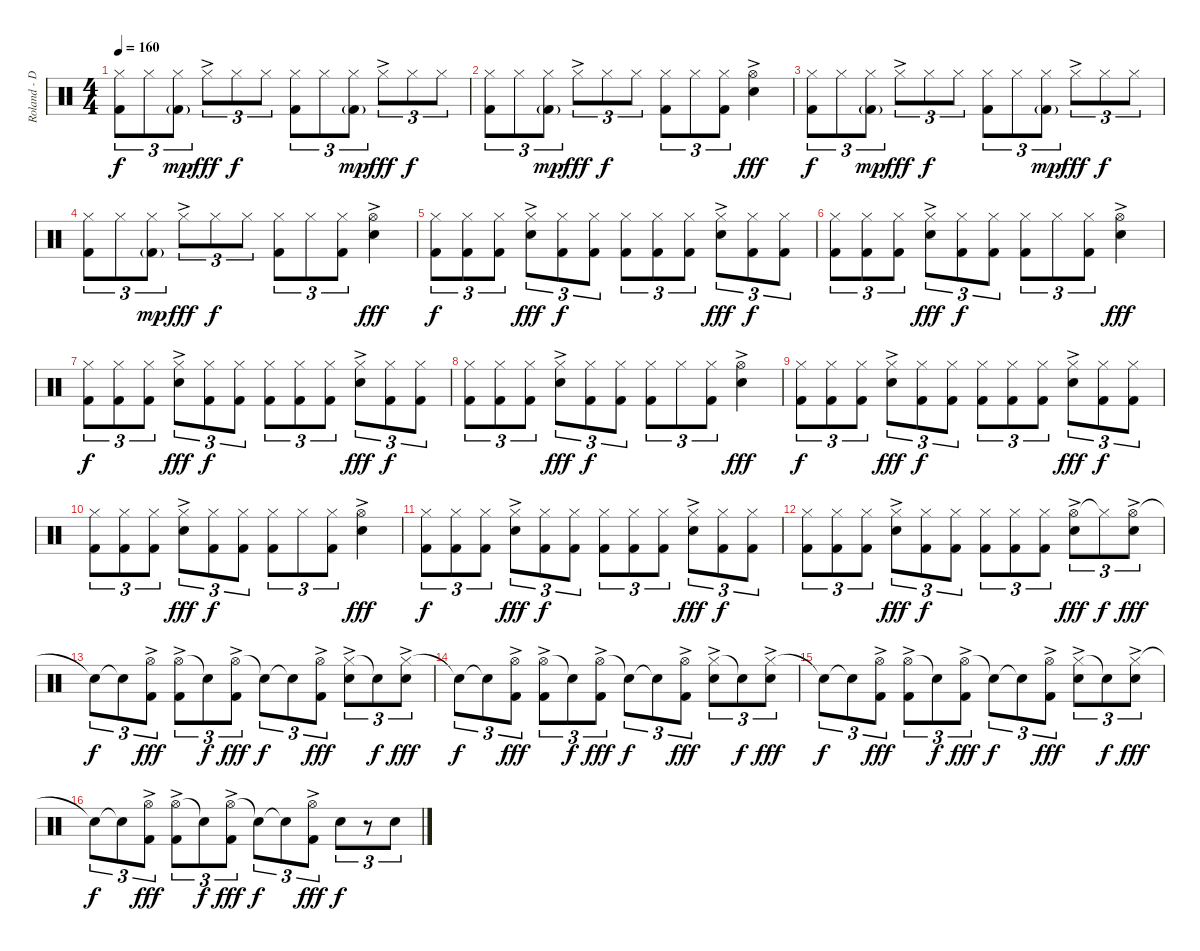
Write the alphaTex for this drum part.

\track ("Roland - Drums" "Roland - D") {instrument percussion}
\staff {score}
\articulation defaults
\ts (4 4)
\tempo 160
\clef neutral
\ks c
("Hi-Hat (closed)" "Kick (hit) 2").8{tu (3 2) dy f} "Hi-Hat (closed)".8{tu (3 2)} ("Hi-Hat (closed)" "Kick (hit) 2"{g}).8{tu (3 2) dy mp} "Hi-Hat (closed)"{ac}.8{tu (3 2) dy fff} "Hi-Hat (closed)".8{tu (3 2) dy f} "Hi-Hat (closed)".8{tu (3 2)} ("Hi-Hat (closed)" "Kick (hit) 2").8{tu (3 2)} "Hi-Hat (closed)".8{tu (3 2)} ("Hi-Hat (closed)" "Kick (hit) 2"{g}).8{tu (3 2) dy mp} "Hi-Hat (closed)"{ac}.8{tu (3 2) dy fff} "Hi-Hat (closed)".8{tu (3 2) dy f} "Hi-Hat (closed)".8{tu (3 2)} |
("Hi-Hat (closed)" "Kick (hit) 2").8{tu (3 2)} "Hi-Hat (closed)".8{tu (3 2)} ("Hi-Hat (closed)" "Kick (hit) 2"{g}).8{tu (3 2) dy mp} "Hi-Hat (closed)"{ac}.8{tu (3 2) dy fff} "Hi-Hat (closed)".8{tu (3 2) dy f} "Hi-Hat (closed)".8{tu (3 2)} ("Hi-Hat (closed)" "Kick (hit) 2").8{tu (3 2)} "Hi-Hat (closed)".8{tu (3 2)} ("Hi-Hat (closed)" "Kick (hit) 2").8{tu (3 2)} ("Hi-Hat (open)"{ac} "Snare (hit) 2").4{dy fff} |
("Hi-Hat (closed)" "Kick (hit) 2").8{tu (3 2) dy f} "Hi-Hat (closed)".8{tu (3 2)} ("Hi-Hat (closed)" "Kick (hit) 2"{g}).8{tu (3 2) dy mp} "Hi-Hat (closed)"{ac}.8{tu (3 2) dy fff} "Hi-Hat (closed)".8{tu (3 2) dy f} "Hi-Hat (closed)".8{tu (3 2)} ("Hi-Hat (closed)" "Kick (hit) 2").8{tu (3 2)} "Hi-Hat (closed)".8{tu (3 2)} ("Hi-Hat (closed)" "Kick (hit) 2"{g}).8{tu (3 2) dy mp} "Hi-Hat (closed)"{ac}.8{tu (3 2) dy fff} "Hi-Hat (closed)".8{tu (3 2) dy f} "Hi-Hat (closed)".8{tu (3 2)} |
("Hi-Hat (closed)" "Kick (hit) 2").8{tu (3 2)} "Hi-Hat (closed)".8{tu (3 2)} ("Hi-Hat (closed)" "Kick (hit) 2"{g}).8{tu (3 2) dy mp} "Hi-Hat (closed)"{ac}.8{tu (3 2) dy fff} "Hi-Hat (closed)".8{tu (3 2) dy f} "Hi-Hat (closed)".8{tu (3 2)} ("Hi-Hat (closed)" "Kick (hit) 2").8{tu (3 2)} "Hi-Hat (closed)".8{tu (3 2)} ("Hi-Hat (closed)" "Kick (hit) 2").8{tu (3 2)} ("Hi-Hat (open)"{ac} "Snare (hit) 2").4{dy fff} |
("Hi-Hat (closed)" "Kick (hit) 2").8{tu (3 2) dy f} ("Hi-Hat (closed)" "Kick (hit) 2").8{tu (3 2)} ("Hi-Hat (closed)" "Kick (hit) 2").8{tu (3 2)} ("Hi-Hat (closed)"{ac} "Snare (hit) 2").8{tu (3 2) dy fff} ("Hi-Hat (closed)" "Kick (hit) 2").8{tu (3 2) dy f} ("Hi-Hat (closed)" "Kick (hit) 2").8{tu (3 2)} ("Hi-Hat (closed)" "Kick (hit) 2").8{tu (3 2)} ("Hi-Hat (closed)" "Kick (hit) 2").8{tu (3 2)} ("Hi-Hat (closed)" "Kick (hit) 2").8{tu (3 2)} ("Hi-Hat (closed)"{ac} "Snare (hit) 2").8{tu (3 2) dy fff} ("Hi-Hat (closed)" "Kick (hit) 2").8{tu (3 2) dy f} ("Hi-Hat (closed)" "Kick (hit) 2").8{tu (3 2)} |
("Hi-Hat (closed)" "Kick (hit) 2").8{tu (3 2)} ("Hi-Hat (closed)" "Kick (hit) 2").8{tu (3 2)} ("Hi-Hat (closed)" "Kick (hit) 2").8{tu (3 2)} ("Hi-Hat (closed)"{ac} "Snare (hit) 2").8{tu (3 2) dy fff} ("Hi-Hat (closed)" "Kick (hit) 2").8{tu (3 2) dy f} ("Hi-Hat (closed)" "Kick (hit) 2").8{tu (3 2)} ("Hi-Hat (closed)" "Kick (hit) 2").8{tu (3 2)} "Hi-Hat (closed)".8{tu (3 2)} ("Hi-Hat (closed)" "Kick (hit) 2").8{tu (3 2)} ("Hi-Hat (open)"{ac} "Snare (hit) 2").4{dy fff} |
("Hi-Hat (closed)" "Kick (hit) 2").8{tu (3 2) dy f} ("Hi-Hat (closed)" "Kick (hit) 2").8{tu (3 2)} ("Hi-Hat (closed)" "Kick (hit) 2").8{tu (3 2)} ("Hi-Hat (closed)"{ac} "Snare (hit) 2").8{tu (3 2) dy fff} ("Hi-Hat (closed)" "Kick (hit) 2").8{tu (3 2) dy f} ("Hi-Hat (closed)" "Kick (hit) 2").8{tu (3 2)} ("Hi-Hat (closed)" "Kick (hit) 2").8{tu (3 2)} ("Hi-Hat (closed)" "Kick (hit) 2").8{tu (3 2)} ("Hi-Hat (closed)" "Kick (hit) 2").8{tu (3 2)} ("Hi-Hat (closed)"{ac} "Snare (hit) 2").8{tu (3 2) dy fff} ("Hi-Hat (closed)" "Kick (hit) 2").8{tu (3 2) dy f} ("Hi-Hat (closed)" "Kick (hit) 2").8{tu (3 2)} |
("Hi-Hat (closed)" "Kick (hit) 2").8{tu (3 2)} ("Hi-Hat (closed)" "Kick (hit) 2").8{tu (3 2)} ("Hi-Hat (closed)" "Kick (hit) 2").8{tu (3 2)} ("Hi-Hat (closed)"{ac} "Snare (hit) 2").8{tu (3 2) dy fff} ("Hi-Hat (closed)" "Kick (hit) 2").8{tu (3 2) dy f} ("Hi-Hat (closed)" "Kick (hit) 2").8{tu (3 2)} ("Hi-Hat (closed)" "Kick (hit) 2").8{tu (3 2)} "Hi-Hat (closed)".8{tu (3 2)} ("Hi-Hat (closed)" "Kick (hit) 2").8{tu (3 2)} ("Hi-Hat (open)"{ac} "Snare (hit) 2").4{dy fff} |
("Hi-Hat (closed)" "Kick (hit) 2").8{tu (3 2) dy f} ("Hi-Hat (closed)" "Kick (hit) 2").8{tu (3 2)} ("Hi-Hat (closed)" "Kick (hit) 2").8{tu (3 2)} ("Hi-Hat (closed)"{ac} "Snare (hit) 2").8{tu (3 2) dy fff} ("Hi-Hat (closed)" "Kick (hit) 2").8{tu (3 2) dy f} ("Hi-Hat (closed)" "Kick (hit) 2").8{tu (3 2)} ("Hi-Hat (closed)" "Kick (hit) 2").8{tu (3 2)} ("Hi-Hat (closed)" "Kick (hit) 2").8{tu (3 2)} ("Hi-Hat (closed)" "Kick (hit) 2").8{tu (3 2)} ("Hi-Hat (closed)"{ac} "Snare (hit) 2").8{tu (3 2) dy fff} ("Hi-Hat (closed)" "Kick (hit) 2").8{tu (3 2) dy f} ("Hi-Hat (closed)" "Kick (hit) 2").8{tu (3 2)} |
("Hi-Hat (closed)" "Kick (hit) 2").8{tu (3 2)} ("Hi-Hat (closed)" "Kick (hit) 2").8{tu (3 2)} ("Hi-Hat (closed)" "Kick (hit) 2").8{tu (3 2)} ("Hi-Hat (closed)"{ac} "Snare (hit) 2").8{tu (3 2) dy fff} ("Hi-Hat (closed)" "Kick (hit) 2").8{tu (3 2) dy f} ("Hi-Hat (closed)" "Kick (hit) 2").8{tu (3 2)} ("Hi-Hat (closed)" "Kick (hit) 2").8{tu (3 2)} "Hi-Hat (closed)".8{tu (3 2)} ("Hi-Hat (closed)" "Kick (hit) 2").8{tu (3 2)} ("Hi-Hat (open)"{ac} "Snare (hit) 2").4{dy fff} |
("Hi-Hat (closed)" "Kick (hit) 2").8{tu (3 2) dy f} ("Hi-Hat (closed)" "Kick (hit) 2").8{tu (3 2)} ("Hi-Hat (closed)" "Kick (hit) 2").8{tu (3 2)} ("Hi-Hat (closed)"{ac} "Snare (hit) 2").8{tu (3 2) dy fff} ("Hi-Hat (closed)" "Kick (hit) 2").8{tu (3 2) dy f} ("Hi-Hat (closed)" "Kick (hit) 2").8{tu (3 2)} ("Hi-Hat (closed)" "Kick (hit) 2").8{tu (3 2)} ("Hi-Hat (closed)" "Kick (hit) 2").8{tu (3 2)} ("Hi-Hat (closed)" "Kick (hit) 2").8{tu (3 2)} ("Hi-Hat (closed)"{ac} "Snare (hit) 2").8{tu (3 2) dy fff} ("Hi-Hat (closed)" "Kick (hit) 2").8{tu (3 2) dy f} ("Hi-Hat (closed)" "Kick (hit) 2").8{tu (3 2)} |
("Hi-Hat (closed)" "Kick (hit) 2").8{tu (3 2)} ("Hi-Hat (closed)" "Kick (hit) 2").8{tu (3 2)} ("Hi-Hat (closed)" "Kick (hit) 2").8{tu (3 2)} ("Hi-Hat (closed)"{ac} "Snare (hit) 2").8{tu (3 2) dy fff} ("Hi-Hat (closed)" "Kick (hit) 2").8{tu (3 2) dy f} ("Hi-Hat (closed)" "Kick (hit) 2").8{tu (3 2)} ("Hi-Hat (closed)" "Kick (hit) 2").8{tu (3 2)} ("Hi-Hat (closed)" "Kick (hit) 2").8{tu (3 2)} ("Hi-Hat (closed)" "Kick (hit) 2").8{tu (3 2)} ("Hi-Hat (open)"{ac} "Snare (hit) 2").8{tu (3 2) dy fff} "Hi-Hat (closed)"{t}.8{tu (3 2) dy f} ("Hi-Hat (open)"{ac} "Snare (hit) 2").8{tu (3 2) dy fff} |
"Snare (hit)"{t}.8{tu (3 2) dy f} "Snare (hit)"{t}.8{tu (3 2)} ("Hi-Hat (open)"{ac} "Kick (hit) 2").8{tu (3 2) dy fff} ("Hi-Hat (open)"{ac} "Kick (hit) 2").8{tu (3 2)} "Snare (hit)"{t}.8{tu (3 2) dy f} ("Hi-Hat (open)"{ac} "Kick (hit) 2").8{tu (3 2) dy fff} "Snare (hit)"{t}.8{tu (3 2) dy f} "Snare (hit)"{t}.8{tu (3 2)} ("Hi-Hat (open)"{ac} "Kick (hit) 2").8{tu (3 2) dy fff} ("Hi-Hat (closed)"{ac} "Snare (hit) 2").8{tu (3 2)} "Snare (hit)"{t}.8{tu (3 2) dy f} ("Hi-Hat (closed)"{ac} "Snare (hit) 2").8{tu (3 2) dy fff} |
"Snare (hit)"{t}.8{tu (3 2) dy f} "Snare (hit)"{t}.8{tu (3 2)} ("Hi-Hat (open)"{ac} "Kick (hit) 2").8{tu (3 2) dy fff} ("Hi-Hat (open)"{ac} "Kick (hit) 2").8{tu (3 2)} "Snare (hit)"{t}.8{tu (3 2) dy f} ("Hi-Hat (open)"{ac} "Kick (hit) 2").8{tu (3 2) dy fff} "Snare (hit)"{t}.8{tu (3 2) dy f} "Snare (hit)"{t}.8{tu (3 2)} ("Hi-Hat (open)"{ac} "Kick (hit) 2").8{tu (3 2) dy fff} ("Hi-Hat (closed)"{ac} "Snare (hit) 2").8{tu (3 2)} "Snare (hit)"{t}.8{tu (3 2) dy f} ("Hi-Hat (closed)"{ac} "Snare (hit) 2").8{tu (3 2) dy fff} |
"Snare (hit)"{t}.8{tu (3 2) dy f} "Snare (hit)"{t}.8{tu (3 2)} ("Hi-Hat (open)"{ac} "Kick (hit) 2").8{tu (3 2) dy fff} ("Hi-Hat (open)"{ac} "Kick (hit) 2").8{tu (3 2)} "Snare (hit)"{t}.8{tu (3 2) dy f} ("Hi-Hat (open)"{ac} "Kick (hit) 2").8{tu (3 2) dy fff} "Snare (hit)"{t}.8{tu (3 2) dy f} "Snare (hit)"{t}.8{tu (3 2)} ("Hi-Hat (open)"{ac} "Kick (hit) 2").8{tu (3 2) dy fff} ("Hi-Hat (closed)"{ac} "Snare (hit) 2").8{tu (3 2)} "Snare (hit)"{t}.8{tu (3 2) dy f} ("Hi-Hat (closed)"{ac} "Snare (hit) 2").8{tu (3 2) dy fff} |
"Snare (hit)"{t}.8{tu (3 2) dy f} "Snare (hit)"{t}.8{tu (3 2)} ("Hi-Hat (open)"{ac} "Kick (hit) 2").8{tu (3 2) dy fff} ("Hi-Hat (open)"{ac} "Kick (hit) 2").8{tu (3 2)} "Snare (hit)"{t}.8{tu (3 2) dy f} ("Hi-Hat (open)"{ac} "Kick (hit) 2").8{tu (3 2) dy fff} "Snare (hit)"{t}.8{tu (3 2) dy f} "Snare (hit)"{t}.8{tu (3 2)} ("Hi-Hat (open)"{ac} "Kick (hit) 2").8{tu (3 2) dy fff} "Snare (hit) 2".8{tu (3 2) dy f} r.8{tu (3 2)} "Snare (hit) 2".8{tu (3 2)}
